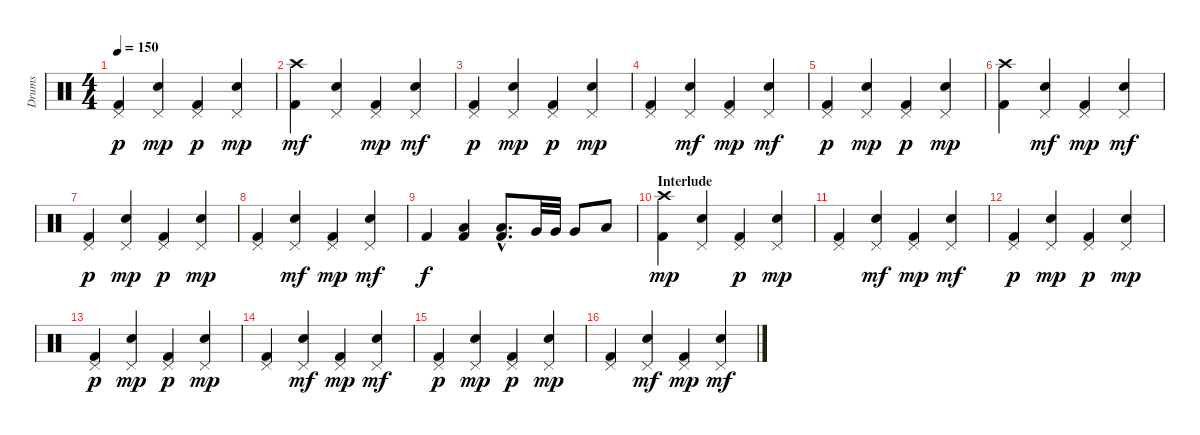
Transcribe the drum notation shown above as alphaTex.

\track ("Drums" "Drums") {instrument percussion}
\staff {score}
\articulation defaults
\ts (4 4)
\tempo 150
\clef neutral
\ks c
("Pedal Hi-Hat (hit)" "Kick (hit) 2").4{dy p} ("Pedal Hi-Hat (hit)" "Electric Snare (hit)").4{dy mp} ("Pedal Hi-Hat (hit)" "Kick (hit) 2").4{dy p} ("Pedal Hi-Hat (hit)" "Electric Snare (hit)").4{dy mp} |
("Crash high (hit)" "Kick (hit) 2").4{dy mf} ("Pedal Hi-Hat (hit)" "Electric Snare (hit)").4 ("Pedal Hi-Hat (hit)" "Kick (hit) 2").4{dy mp} ("Pedal Hi-Hat (hit)" "Electric Snare (hit)").4{dy mf} |
("Pedal Hi-Hat (hit)" "Kick (hit) 2").4{dy p} ("Pedal Hi-Hat (hit)" "Electric Snare (hit)").4{dy mp} ("Pedal Hi-Hat (hit)" "Kick (hit) 2").4{dy p} ("Pedal Hi-Hat (hit)" "Electric Snare (hit)").4{dy mp} |
("Pedal Hi-Hat (hit)" "Kick (hit) 2").4 ("Pedal Hi-Hat (hit)" "Electric Snare (hit)").4{dy mf} ("Pedal Hi-Hat (hit)" "Kick (hit) 2").4{dy mp} ("Pedal Hi-Hat (hit)" "Electric Snare (hit)").4{dy mf} |
("Pedal Hi-Hat (hit)" "Kick (hit) 2").4{dy p} ("Pedal Hi-Hat (hit)" "Electric Snare (hit)").4{dy mp} ("Pedal Hi-Hat (hit)" "Kick (hit) 2").4{dy p} ("Pedal Hi-Hat (hit)" "Electric Snare (hit)").4{dy mp} |
("Crash high (hit)" "Kick (hit) 2").4 ("Pedal Hi-Hat (hit)" "Electric Snare (hit)").4{dy mf} ("Pedal Hi-Hat (hit)" "Kick (hit) 2").4{dy mp} ("Pedal Hi-Hat (hit)" "Electric Snare (hit)").4{dy mf} |
("Pedal Hi-Hat (hit)" "Kick (hit) 2").4{dy p} ("Pedal Hi-Hat (hit)" "Electric Snare (hit)").4{dy mp} ("Pedal Hi-Hat (hit)" "Kick (hit) 2").4{dy p} ("Pedal Hi-Hat (hit)" "Electric Snare (hit)").4{dy mp} |
("Pedal Hi-Hat (hit)" "Kick (hit) 2").4 ("Pedal Hi-Hat (hit)" "Electric Snare (hit)").4{dy mf} ("Pedal Hi-Hat (hit)" "Kick (hit) 2").4{dy mp} ("Pedal Hi-Hat (hit)" "Electric Snare (hit)").4{dy mf} |
"Kick (hit) 2".4{dy f} ("Low Tom (hit)" "Kick (hit) 2").4 ("Low Tom (hit)"{hac} "Kick (hit) 2"{hac}).8{d} "Very Low Tom (hit)".32 "Very Low Tom (hit)".32 "Very Low Tom (hit)".8 "Low Floor Tom (hit)".8 |
\section ("" "Interlude")
("Crash high (hit)" "Kick (hit) 2").4{dy mp} ("Pedal Hi-Hat (hit)" "Electric Snare (hit)").4 ("Pedal Hi-Hat (hit)" "Kick (hit) 2").4{dy p} ("Pedal Hi-Hat (hit)" "Electric Snare (hit)").4{dy mp} |
("Pedal Hi-Hat (hit)" "Kick (hit) 2").4 ("Pedal Hi-Hat (hit)" "Electric Snare (hit)").4{dy mf} ("Pedal Hi-Hat (hit)" "Kick (hit) 2").4{dy mp} ("Pedal Hi-Hat (hit)" "Electric Snare (hit)").4{dy mf} |
("Pedal Hi-Hat (hit)" "Kick (hit) 2").4{dy p} ("Pedal Hi-Hat (hit)" "Electric Snare (hit)").4{dy mp} ("Pedal Hi-Hat (hit)" "Kick (hit) 2").4{dy p} ("Pedal Hi-Hat (hit)" "Electric Snare (hit)").4{dy mp} |
("Pedal Hi-Hat (hit)" "Kick (hit) 2").4{dy p} ("Pedal Hi-Hat (hit)" "Electric Snare (hit)").4{dy mp} ("Pedal Hi-Hat (hit)" "Kick (hit) 2").4{dy p} ("Pedal Hi-Hat (hit)" "Electric Snare (hit)").4{dy mp} |
("Pedal Hi-Hat (hit)" "Kick (hit) 2").4 ("Pedal Hi-Hat (hit)" "Electric Snare (hit)").4{dy mf} ("Pedal Hi-Hat (hit)" "Kick (hit) 2").4{dy mp} ("Pedal Hi-Hat (hit)" "Electric Snare (hit)").4{dy mf} |
("Pedal Hi-Hat (hit)" "Kick (hit) 2").4{dy p} ("Pedal Hi-Hat (hit)" "Electric Snare (hit)").4{dy mp} ("Pedal Hi-Hat (hit)" "Kick (hit) 2").4{dy p} ("Pedal Hi-Hat (hit)" "Electric Snare (hit)").4{dy mp} |
("Pedal Hi-Hat (hit)" "Kick (hit) 2").4 ("Pedal Hi-Hat (hit)" "Electric Snare (hit)").4{dy mf} ("Pedal Hi-Hat (hit)" "Kick (hit) 2").4{dy mp} ("Pedal Hi-Hat (hit)" "Electric Snare (hit)").4{dy mf}
